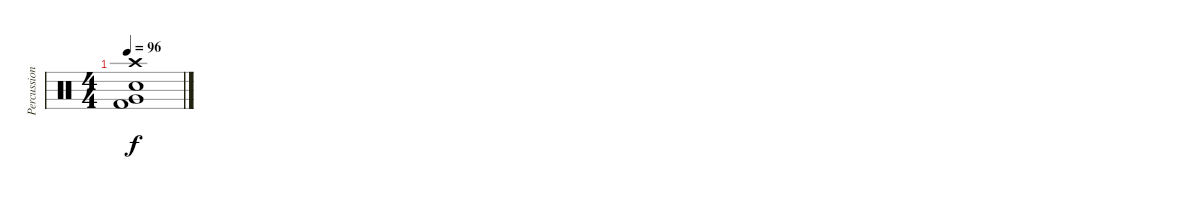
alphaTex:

\track ("Percussion" "Percussion") {instrument percussion}
\staff {score}
\articulation defaults
\ts (4 4)
\tempo 96
\clef neutral
\ks c
("Crash high (hit)" "Electric Snare (hit)" "Very Low Tom (hit)" "Kick (hit) 2").1{dy f}
